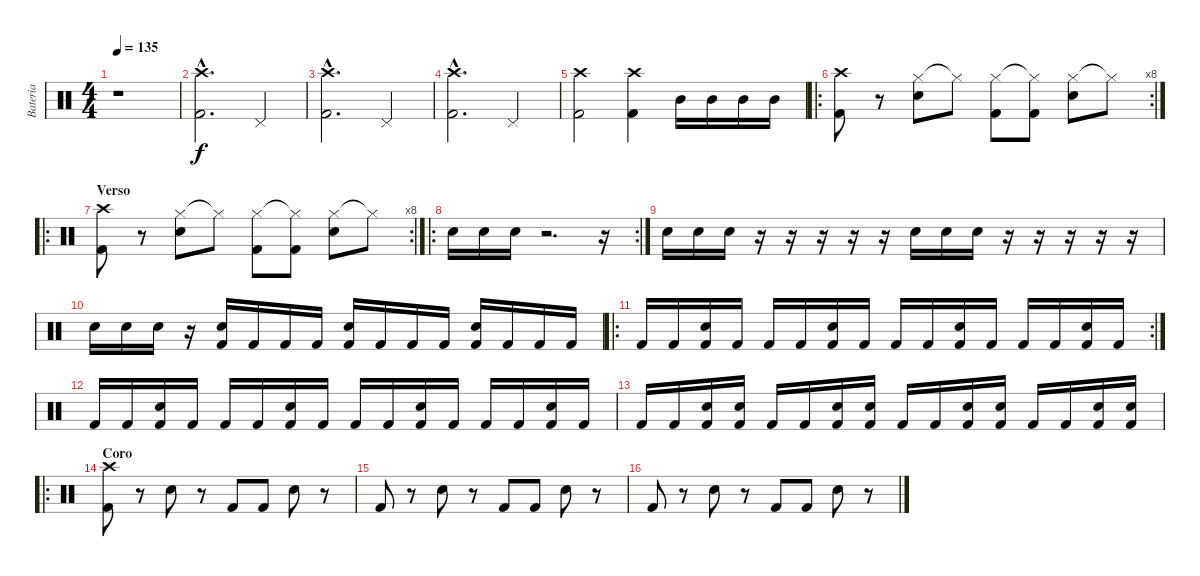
\track ("Bateria" "Bateria") {instrument percussion}
\staff {score}
\articulation defaults
\ts (4 4)
\tempo 135
\clef neutral
\ks c
r.1{dy f} |
("Crash high (hit)"{hac} "Kick (hit) 2"{hac}).2{d} "Pedal Hi-Hat (hit)".4 |
("Crash high (hit)"{hac} "Kick (hit) 2"{hac}).2{d} "Pedal Hi-Hat (hit)".4 |
("Crash high (hit)"{hac} "Kick (hit) 2"{hac}).2{d} "Pedal Hi-Hat (hit)".4 |
("Crash high (hit)" "Kick (hit) 2").2 ("Crash high (hit)" "Kick (hit) 2").4 "Mid Tom (hit)".16 "Mid Tom (hit)".16 "Mid Tom (hit)".16 "Mid Tom (hit)".16 |
\ro
\rc 8
("Crash high (hit)" "Kick (hit) 2").8 r.8 ("Hi-Hat (closed)" "Snare (hit) 2").8 "Hi-Hat (closed)"{t}.8 ("Hi-Hat (closed)" "Kick (hit) 2").8 ("Hi-Hat (closed)"{t} "Kick (hit) 2").8 ("Hi-Hat (closed)" "Snare (hit) 2").8 "Hi-Hat (closed)"{t}.8 |
\ro
\rc 8
\section ("" "Verso ")
("Crash high (hit)" "Kick (hit) 2").8 r.8 ("Hi-Hat (closed)" "Snare (hit) 2").8 "Hi-Hat (closed)"{t}.8 ("Hi-Hat (closed)" "Kick (hit) 2").8 ("Hi-Hat (closed)"{t} "Kick (hit) 2").8 ("Hi-Hat (closed)" "Snare (hit) 2").8 "Hi-Hat (closed)"{t}.8 |
\ro
\rc 2 "Snare (hit) 2".16 "Snare (hit) 2".16 "Snare (hit) 2".16
r.2{d} r.16 |
"Snare (hit) 2".16 "Snare (hit) 2".16 "Snare (hit) 2".16 r.16 r.16 r.16 r.16 r.16 "Snare (hit) 2".16 "Snare (hit) 2".16 "Snare (hit) 2".16 r.16 r.16 r.16 r.16 r.16 |
"Snare (hit) 2".16 "Snare (hit) 2".16 "Snare (hit) 2".16 r.16 ("Snare (hit) 2" "Kick (hit) 2").16 "Kick (hit) 2".16 "Kick (hit) 2".16 "Kick (hit) 2".16 ("Snare (hit) 2" "Kick (hit) 2").16 "Kick (hit) 2".16 "Kick (hit) 2".16 "Kick (hit) 2".16 ("Snare (hit) 2" "Kick (hit) 2").16 "Kick (hit) 2".16 "Kick (hit) 2".16 "Kick (hit) 2".16 |
\ro
\rc 2 "Kick (hit) 2".16 "Kick (hit) 2".16
("Snare (hit) 2" "Kick (hit) 2").16 "Kick (hit) 2".16 "Kick (hit) 2".16 "Kick (hit) 2".16 ("Snare (hit) 2" "Kick (hit) 2").16 "Kick (hit) 2".16 "Kick (hit) 2".16 "Kick (hit) 2".16 ("Snare (hit) 2" "Kick (hit) 2").16 "Kick (hit) 2".16 "Kick (hit) 2".16 "Kick (hit) 2".16 ("Snare (hit) 2" "Kick (hit) 2").16 "Kick (hit) 2".16 |
"Kick (hit) 2".16 "Kick (hit) 2".16 ("Snare (hit) 2" "Kick (hit) 2").16 "Kick (hit) 2".16 "Kick (hit) 2".16 "Kick (hit) 2".16 ("Snare (hit) 2" "Kick (hit) 2").16 "Kick (hit) 2".16 "Kick (hit) 2".16 "Kick (hit) 2".16 ("Snare (hit) 2" "Kick (hit) 2").16 "Kick (hit) 2".16 "Kick (hit) 2".16 "Kick (hit) 2".16 ("Snare (hit) 2" "Kick (hit) 2").16 "Kick (hit) 2".16 |
"Kick (hit) 2".16 "Kick (hit) 2".16 ("Snare (hit) 2" "Kick (hit) 2").16 ("Snare (hit) 2" "Kick (hit) 2").16 "Kick (hit) 2".16 "Kick (hit) 2".16 ("Snare (hit) 2" "Kick (hit) 2").16 ("Snare (hit) 2" "Kick (hit) 2").16 "Kick (hit) 2".16 "Kick (hit) 2".16 ("Snare (hit) 2" "Kick (hit) 2").16 ("Snare (hit) 2" "Kick (hit) 2").16 "Kick (hit) 2".16 "Kick (hit) 2".16 ("Snare (hit) 2" "Kick (hit) 2").16 ("Snare (hit) 2" "Kick (hit) 2").16 |
\ro
\section ("" "Coro")
("Crash high (hit)" "Kick (hit) 2").8 r.8 "Snare (hit) 2".8 r.8 "Kick (hit) 2".8 "Kick (hit) 2".8 "Snare (hit) 2".8 r.8 |
"Kick (hit) 2".8 r.8 "Snare (hit) 2".8 r.8 "Kick (hit) 2".8 "Kick (hit) 2".8 "Snare (hit) 2".8 r.8 |
"Kick (hit) 2".8 r.8 "Snare (hit) 2".8 r.8 "Kick (hit) 2".8 "Kick (hit) 2".8 "Snare (hit) 2".8 r.8
